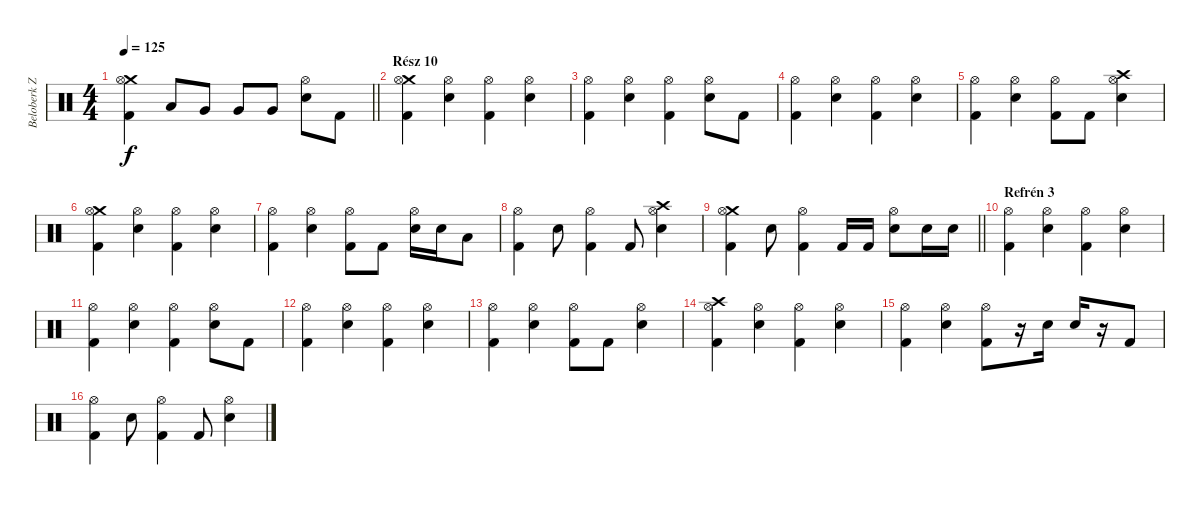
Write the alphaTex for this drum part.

\track ("Beloberk Zsolt - Dobok" "Beloberk Z") {instrument percussion}
\staff {score}
\articulation defaults
\ts (4 4)
\tempo 125
\clef neutral
\barLineRight lightlight
\ks c
("Crash medium (hit)" "Hi-Hat (open)" "Kick (hit) 2").4{dy f} "Low Tom (hit)".8 "Very Low Tom (hit)".8 "Very Low Tom (hit)".8 "Very Low Tom (hit)".8 ("Hi-Hat (open)" "Electric Snare (hit)").8 "Kick (hit) 2".8 |
\section ("" "Rész 10")
("Crash medium (hit)" "Hi-Hat (open)" "Kick (hit) 2").4 ("Hi-Hat (open)" "Electric Snare (hit)").4 ("Hi-Hat (open)" "Kick (hit) 2").4 ("Hi-Hat (open)" "Electric Snare (hit)").4 |
("Hi-Hat (open)" "Kick (hit) 2").4 ("Hi-Hat (open)" "Electric Snare (hit)").4 ("Hi-Hat (open)" "Kick (hit) 2").4 ("Hi-Hat (open)" "Electric Snare (hit)").8 "Kick (hit) 2".8 |
("Hi-Hat (open)" "Kick (hit) 2").4 ("Hi-Hat (open)" "Electric Snare (hit)").4 ("Hi-Hat (open)" "Kick (hit) 2").4 ("Hi-Hat (open)" "Electric Snare (hit)").4 |
("Hi-Hat (open)" "Kick (hit) 2").4 ("Hi-Hat (open)" "Electric Snare (hit)").4 ("Hi-Hat (open)" "Kick (hit) 2").8 "Kick (hit) 2".8 ("Crash high (hit)" "Hi-Hat (open)" "Electric Snare (hit)").4 |
("Crash medium (hit)" "Hi-Hat (open)" "Kick (hit) 2").4 ("Hi-Hat (open)" "Electric Snare (hit)").4 ("Hi-Hat (open)" "Kick (hit) 2").4 ("Hi-Hat (open)" "Electric Snare (hit)").4 |
("Hi-Hat (open)" "Kick (hit) 2").4 ("Hi-Hat (open)" "Electric Snare (hit)").4 ("Hi-Hat (open)" "Kick (hit) 2").8 "Kick (hit) 2".8 ("Hi-Hat (open)" "Electric Snare (hit)").16 "Electric Snare (hit)".16 "Low Tom (hit)".8 |
("Hi-Hat (open)" "Kick (hit) 2").4 "Electric Snare (hit)".8 ("Hi-Hat (open)" "Kick (hit) 2").4 "Kick (hit) 2".8 ("Crash high (hit)" "Hi-Hat (open)" "Electric Snare (hit)").4 |
\barLineRight lightlight
("Crash medium (hit)" "Hi-Hat (open)" "Kick (hit) 2").4 "Electric Snare (hit)".8 ("Hi-Hat (open)" "Kick (hit) 2").4 "Kick (hit) 2".16 "Kick (hit) 2".16 ("Hi-Hat (open)" "Electric Snare (hit)").8 "Electric Snare (hit)".16 "Electric Snare (hit)".16 |
\section ("" "Refrén 3")
("Hi-Hat (open)" "Kick (hit) 2").4 ("Hi-Hat (open)" "Electric Snare (hit)").4 ("Hi-Hat (open)" "Kick (hit) 2").4 ("Hi-Hat (open)" "Electric Snare (hit)").4 |
("Hi-Hat (open)" "Kick (hit) 2").4 ("Hi-Hat (open)" "Electric Snare (hit)").4 ("Hi-Hat (open)" "Kick (hit) 2").4 ("Hi-Hat (open)" "Electric Snare (hit)").8 "Kick (hit) 2".8 |
("Hi-Hat (open)" "Kick (hit) 2").4 ("Hi-Hat (open)" "Electric Snare (hit)").4 ("Hi-Hat (open)" "Kick (hit) 2").4 ("Hi-Hat (open)" "Electric Snare (hit)").4 |
("Hi-Hat (open)" "Kick (hit) 2").4 ("Hi-Hat (open)" "Electric Snare (hit)").4 ("Hi-Hat (open)" "Kick (hit) 2").8 "Kick (hit) 2".8 ("Hi-Hat (open)" "Electric Snare (hit)").4 |
("Crash high (hit)" "Hi-Hat (open)" "Kick (hit) 2").4 ("Hi-Hat (open)" "Electric Snare (hit)").4 ("Hi-Hat (open)" "Kick (hit) 2").4 ("Hi-Hat (open)" "Electric Snare (hit)").4 |
("Hi-Hat (open)" "Kick (hit) 2").4 ("Hi-Hat (open)" "Electric Snare (hit)").4 ("Hi-Hat (open)" "Kick (hit) 2").8 r.16 "Electric Snare (hit)".16 "Electric Snare (hit)".16 r.16 "Kick (hit) 2".8 |
("Hi-Hat (open)" "Kick (hit) 2").4 "Electric Snare (hit)".8 ("Hi-Hat (open)" "Kick (hit) 2").4 "Kick (hit) 2".8 ("Hi-Hat (open)" "Electric Snare (hit)").4
